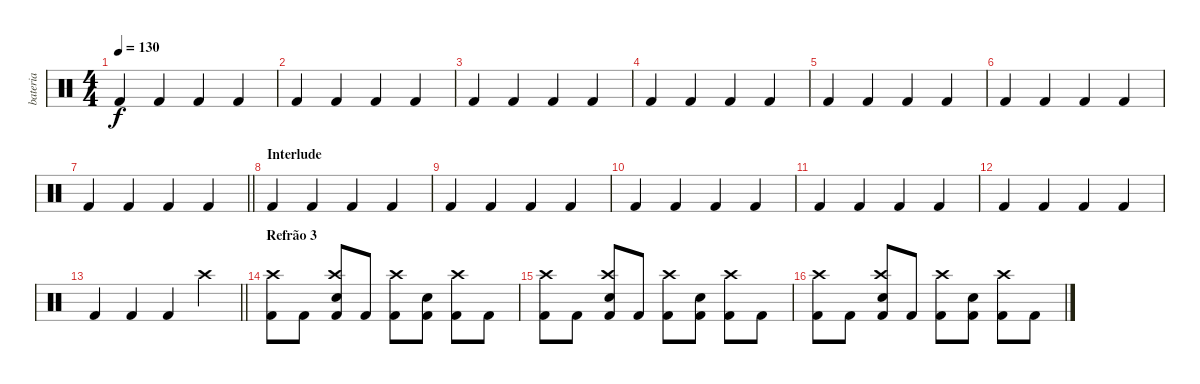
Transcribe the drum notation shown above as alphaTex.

\track ("bateria" "bateria") {instrument percussion}
\staff {score}
\articulation defaults
\ts (4 4)
\tempo 130
\clef neutral
\ks c "Kick (hit) 2".4{dy f} "Kick (hit) 2".4 "Kick (hit) 2".4 "Kick (hit) 2".4
|
"Kick (hit) 2".4 "Kick (hit) 2".4 "Kick (hit) 2".4 "Kick (hit) 2".4 |
"Kick (hit) 2".4 "Kick (hit) 2".4 "Kick (hit) 2".4 "Kick (hit) 2".4 |
"Kick (hit) 2".4 "Kick (hit) 2".4 "Kick (hit) 2".4 "Kick (hit) 2".4 |
"Kick (hit) 2".4 "Kick (hit) 2".4 "Kick (hit) 2".4 "Kick (hit) 2".4 |
"Kick (hit) 2".4 "Kick (hit) 2".4 "Kick (hit) 2".4 "Kick (hit) 2".4 |
\barLineRight lightlight "Kick (hit) 2".4 "Kick (hit) 2".4 "Kick (hit) 2".4 "Kick (hit) 2".4
|
\section ("" "Interlude")
"Kick (hit) 2".4 "Kick (hit) 2".4 "Kick (hit) 2".4 "Kick (hit) 2".4 |
"Kick (hit) 2".4 "Kick (hit) 2".4 "Kick (hit) 2".4 "Kick (hit) 2".4 |
"Kick (hit) 2".4 "Kick (hit) 2".4 "Kick (hit) 2".4 "Kick (hit) 2".4 |
"Kick (hit) 2".4 "Kick (hit) 2".4 "Kick (hit) 2".4 "Kick (hit) 2".4 |
"Kick (hit) 2".4 "Kick (hit) 2".4 "Kick (hit) 2".4 "Kick (hit) 2".4 |
\barLineRight lightlight "Kick (hit) 2".4 "Kick (hit) 2".4 "Kick (hit) 2".4 "Crash high (hit)".4
|
\section ("" "Refrão 3")
("Crash high (hit)" "Kick (hit) 2").8 "Kick (hit) 2".8 ("Crash high (hit)" "Kick (hit) 2" "Electric Snare (hit)").8 "Kick (hit) 2".8 ("Crash high (hit)" "Kick (hit) 2").8 ("Kick (hit) 2" "Electric Snare (hit)").8 ("Crash high (hit)" "Kick (hit) 2").8 "Kick (hit) 2".8 |
("Crash high (hit)" "Kick (hit) 2").8 "Kick (hit) 2".8 ("Crash high (hit)" "Kick (hit) 2" "Electric Snare (hit)").8 "Kick (hit) 2".8 ("Crash high (hit)" "Kick (hit) 2").8 ("Kick (hit) 2" "Electric Snare (hit)").8 ("Crash high (hit)" "Kick (hit) 2").8 "Kick (hit) 2".8 |
("Crash high (hit)" "Kick (hit) 2").8 "Kick (hit) 2".8 ("Crash high (hit)" "Kick (hit) 2" "Electric Snare (hit)").8 "Kick (hit) 2".8 ("Crash high (hit)" "Kick (hit) 2").8 ("Kick (hit) 2" "Electric Snare (hit)").8 ("Crash high (hit)" "Kick (hit) 2").8 "Kick (hit) 2".8
